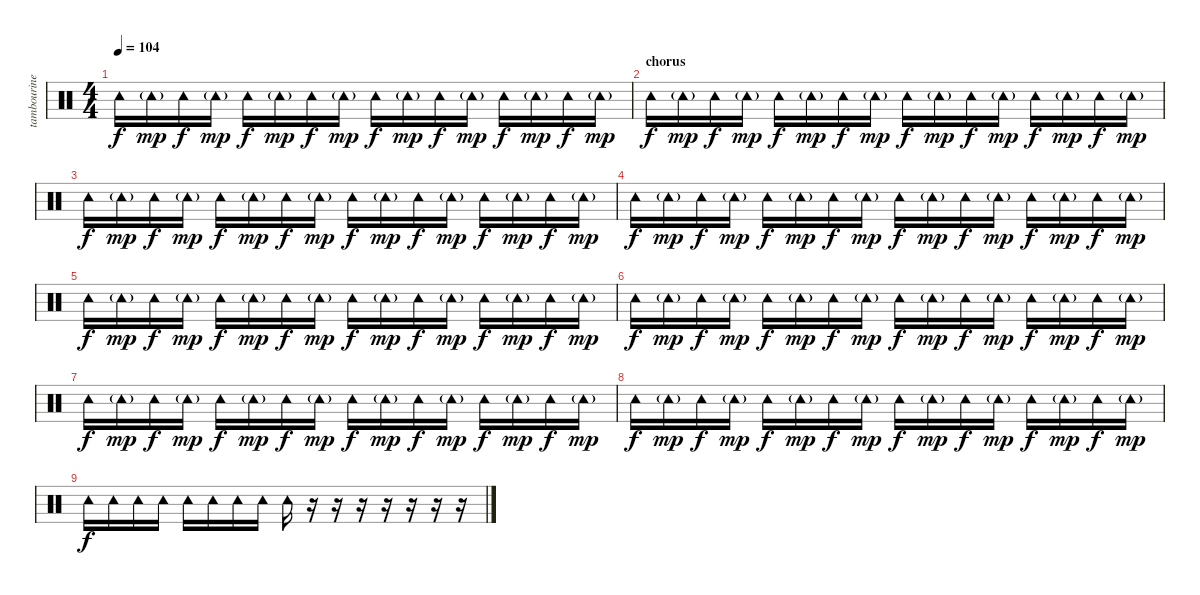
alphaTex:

\track ("tambourine" "tambourine") {instrument percussion}
\staff {score}
\articulation defaults
\ts (4 4)
\tempo 104
\clef neutral
\ks c "Tambourine (hit)".16{dy f} "Tambourine (hit)"{g}.16{dy mp} "Tambourine (hit)".16{dy f} "Tambourine (hit)"{g}.16{dy mp} "Tambourine (hit)".16{dy f} "Tambourine (hit)"{g}.16{dy mp} "Tambourine (hit)".16{dy f} "Tambourine (hit)"{g}.16{dy mp} "Tambourine (hit)".16{dy f} "Tambourine (hit)"{g}.16{dy mp} "Tambourine (hit)".16{dy f} "Tambourine (hit)"{g}.16{dy mp} "Tambourine (hit)".16{dy f} "Tambourine (hit)"{g}.16{dy mp} "Tambourine (hit)".16{dy f} "Tambourine (hit)"{g}.16{dy mp}
|
\section ("" "chorus")
"Tambourine (hit)".16{dy f} "Tambourine (hit)"{g}.16{dy mp} "Tambourine (hit)".16{dy f} "Tambourine (hit)"{g}.16{dy mp} "Tambourine (hit)".16{dy f} "Tambourine (hit)"{g}.16{dy mp} "Tambourine (hit)".16{dy f} "Tambourine (hit)"{g}.16{dy mp} "Tambourine (hit)".16{dy f} "Tambourine (hit)"{g}.16{dy mp} "Tambourine (hit)".16{dy f} "Tambourine (hit)"{g}.16{dy mp} "Tambourine (hit)".16{dy f} "Tambourine (hit)"{g}.16{dy mp} "Tambourine (hit)".16{dy f} "Tambourine (hit)"{g}.16{dy mp} |
"Tambourine (hit)".16{dy f} "Tambourine (hit)"{g}.16{dy mp} "Tambourine (hit)".16{dy f} "Tambourine (hit)"{g}.16{dy mp} "Tambourine (hit)".16{dy f} "Tambourine (hit)"{g}.16{dy mp} "Tambourine (hit)".16{dy f} "Tambourine (hit)"{g}.16{dy mp} "Tambourine (hit)".16{dy f} "Tambourine (hit)"{g}.16{dy mp} "Tambourine (hit)".16{dy f} "Tambourine (hit)"{g}.16{dy mp} "Tambourine (hit)".16{dy f} "Tambourine (hit)"{g}.16{dy mp} "Tambourine (hit)".16{dy f} "Tambourine (hit)"{g}.16{dy mp} |
"Tambourine (hit)".16{dy f} "Tambourine (hit)"{g}.16{dy mp} "Tambourine (hit)".16{dy f} "Tambourine (hit)"{g}.16{dy mp} "Tambourine (hit)".16{dy f} "Tambourine (hit)"{g}.16{dy mp} "Tambourine (hit)".16{dy f} "Tambourine (hit)"{g}.16{dy mp} "Tambourine (hit)".16{dy f} "Tambourine (hit)"{g}.16{dy mp} "Tambourine (hit)".16{dy f} "Tambourine (hit)"{g}.16{dy mp} "Tambourine (hit)".16{dy f} "Tambourine (hit)"{g}.16{dy mp} "Tambourine (hit)".16{dy f} "Tambourine (hit)"{g}.16{dy mp} |
"Tambourine (hit)".16{dy f} "Tambourine (hit)"{g}.16{dy mp} "Tambourine (hit)".16{dy f} "Tambourine (hit)"{g}.16{dy mp} "Tambourine (hit)".16{dy f} "Tambourine (hit)"{g}.16{dy mp} "Tambourine (hit)".16{dy f} "Tambourine (hit)"{g}.16{dy mp} "Tambourine (hit)".16{dy f} "Tambourine (hit)"{g}.16{dy mp} "Tambourine (hit)".16{dy f} "Tambourine (hit)"{g}.16{dy mp} "Tambourine (hit)".16{dy f} "Tambourine (hit)"{g}.16{dy mp} "Tambourine (hit)".16{dy f} "Tambourine (hit)"{g}.16{dy mp} |
"Tambourine (hit)".16{dy f} "Tambourine (hit)"{g}.16{dy mp} "Tambourine (hit)".16{dy f} "Tambourine (hit)"{g}.16{dy mp} "Tambourine (hit)".16{dy f} "Tambourine (hit)"{g}.16{dy mp} "Tambourine (hit)".16{dy f} "Tambourine (hit)"{g}.16{dy mp} "Tambourine (hit)".16{dy f} "Tambourine (hit)"{g}.16{dy mp} "Tambourine (hit)".16{dy f} "Tambourine (hit)"{g}.16{dy mp} "Tambourine (hit)".16{dy f} "Tambourine (hit)"{g}.16{dy mp} "Tambourine (hit)".16{dy f} "Tambourine (hit)"{g}.16{dy mp} |
"Tambourine (hit)".16{dy f} "Tambourine (hit)"{g}.16{dy mp} "Tambourine (hit)".16{dy f} "Tambourine (hit)"{g}.16{dy mp} "Tambourine (hit)".16{dy f} "Tambourine (hit)"{g}.16{dy mp} "Tambourine (hit)".16{dy f} "Tambourine (hit)"{g}.16{dy mp} "Tambourine (hit)".16{dy f} "Tambourine (hit)"{g}.16{dy mp} "Tambourine (hit)".16{dy f} "Tambourine (hit)"{g}.16{dy mp} "Tambourine (hit)".16{dy f} "Tambourine (hit)"{g}.16{dy mp} "Tambourine (hit)".16{dy f} "Tambourine (hit)"{g}.16{dy mp} |
"Tambourine (hit)".16{dy f} "Tambourine (hit)"{g}.16{dy mp} "Tambourine (hit)".16{dy f} "Tambourine (hit)"{g}.16{dy mp} "Tambourine (hit)".16{dy f} "Tambourine (hit)"{g}.16{dy mp} "Tambourine (hit)".16{dy f} "Tambourine (hit)"{g}.16{dy mp} "Tambourine (hit)".16{dy f} "Tambourine (hit)"{g}.16{dy mp} "Tambourine (hit)".16{dy f} "Tambourine (hit)"{g}.16{dy mp} "Tambourine (hit)".16{dy f} "Tambourine (hit)"{g}.16{dy mp} "Tambourine (hit)".16{dy f} "Tambourine (hit)"{g}.16{dy mp} |
"Tambourine (hit)".16{dy f} "Tambourine (hit)".16 "Tambourine (hit)".16 "Tambourine (hit)".16 "Tambourine (hit)".16 "Tambourine (hit)".16 "Tambourine (hit)".16 "Tambourine (hit)".16 "Tambourine (hit)".16 r.16 r.16 r.16 r.16 r.16 r.16 r.16
